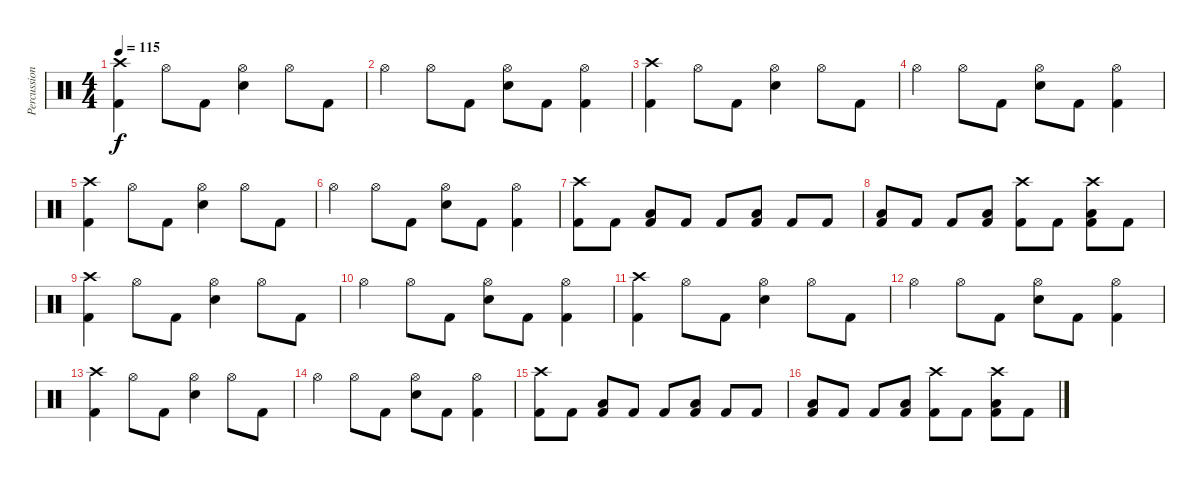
\track ("Percussion" "Percussion") {instrument percussion}
\staff {score}
\articulation defaults
\ts (4 4)
\tempo 115
\clef neutral
\ks c
("Crash high (hit)" "Kick (hit) 2").4{dy f} "Hi-Hat (open)".8 "Kick (hit) 2".8 ("Hi-Hat (open)" "Electric Snare (hit)").4 "Hi-Hat (open)".8 "Kick (hit) 2".8 |
"Hi-Hat (open)".4 "Hi-Hat (open)".8 "Kick (hit) 2".8 ("Hi-Hat (open)" "Electric Snare (hit)").8 "Kick (hit) 2".8 ("Hi-Hat (open)" "Kick (hit) 2").4 |
("Crash high (hit)" "Kick (hit) 2").4 "Hi-Hat (open)".8 "Kick (hit) 2".8 ("Hi-Hat (open)" "Electric Snare (hit)").4 "Hi-Hat (open)".8 "Kick (hit) 2".8 |
"Hi-Hat (open)".4 "Hi-Hat (open)".8 "Kick (hit) 2".8 ("Hi-Hat (open)" "Electric Snare (hit)").8 "Kick (hit) 2".8 ("Hi-Hat (open)" "Kick (hit) 2").4 |
("Crash high (hit)" "Kick (hit) 2").4 "Hi-Hat (open)".8 "Kick (hit) 2".8 ("Hi-Hat (open)" "Electric Snare (hit)").4 "Hi-Hat (open)".8 "Kick (hit) 2".8 |
"Hi-Hat (open)".4 "Hi-Hat (open)".8 "Kick (hit) 2".8 ("Hi-Hat (open)" "Electric Snare (hit)").8 "Kick (hit) 2".8 ("Hi-Hat (open)" "Kick (hit) 2").4 |
("Crash high (hit)" "Kick (hit) 2").8 "Kick (hit) 2".8 ("Low Tom (hit)" "Kick (hit) 2").8 "Kick (hit) 2".8 "Kick (hit) 2".8 ("Low Tom (hit)" "Kick (hit) 2").8 "Kick (hit) 2".8 "Kick (hit) 2".8 |
("Low Tom (hit)" "Kick (hit) 2").8 "Kick (hit) 2".8 "Kick (hit) 2".8 ("Low Tom (hit)" "Kick (hit) 2").8 ("Crash high (hit)" "Kick (hit) 2").8 "Kick (hit) 2".8 ("Crash high (hit)" "Low Tom (hit)" "Kick (hit) 2").8 "Kick (hit) 2".8 |
("Crash high (hit)" "Kick (hit) 2").4 "Hi-Hat (open)".8 "Kick (hit) 2".8 ("Hi-Hat (open)" "Electric Snare (hit)").4 "Hi-Hat (open)".8 "Kick (hit) 2".8 |
"Hi-Hat (open)".4 "Hi-Hat (open)".8 "Kick (hit) 2".8 ("Hi-Hat (open)" "Electric Snare (hit)").8 "Kick (hit) 2".8 ("Hi-Hat (open)" "Kick (hit) 2").4 |
("Crash high (hit)" "Kick (hit) 2").4 "Hi-Hat (open)".8 "Kick (hit) 2".8 ("Hi-Hat (open)" "Electric Snare (hit)").4 "Hi-Hat (open)".8 "Kick (hit) 2".8 |
"Hi-Hat (open)".4 "Hi-Hat (open)".8 "Kick (hit) 2".8 ("Hi-Hat (open)" "Electric Snare (hit)").8 "Kick (hit) 2".8 ("Hi-Hat (open)" "Kick (hit) 2").4 |
("Crash high (hit)" "Kick (hit) 2").4 "Hi-Hat (open)".8 "Kick (hit) 2".8 ("Hi-Hat (open)" "Electric Snare (hit)").4 "Hi-Hat (open)".8 "Kick (hit) 2".8 |
"Hi-Hat (open)".4 "Hi-Hat (open)".8 "Kick (hit) 2".8 ("Hi-Hat (open)" "Electric Snare (hit)").8 "Kick (hit) 2".8 ("Hi-Hat (open)" "Kick (hit) 2").4 |
("Crash high (hit)" "Kick (hit) 2").8 "Kick (hit) 2".8 ("Low Tom (hit)" "Kick (hit) 2").8 "Kick (hit) 2".8 "Kick (hit) 2".8 ("Low Tom (hit)" "Kick (hit) 2").8 "Kick (hit) 2".8 "Kick (hit) 2".8 |
("Low Tom (hit)" "Kick (hit) 2").8 "Kick (hit) 2".8 "Kick (hit) 2".8 ("Low Tom (hit)" "Kick (hit) 2").8 ("Crash high (hit)" "Kick (hit) 2").8 "Kick (hit) 2".8 ("Crash high (hit)" "Low Tom (hit)" "Kick (hit) 2").8 "Kick (hit) 2".8
